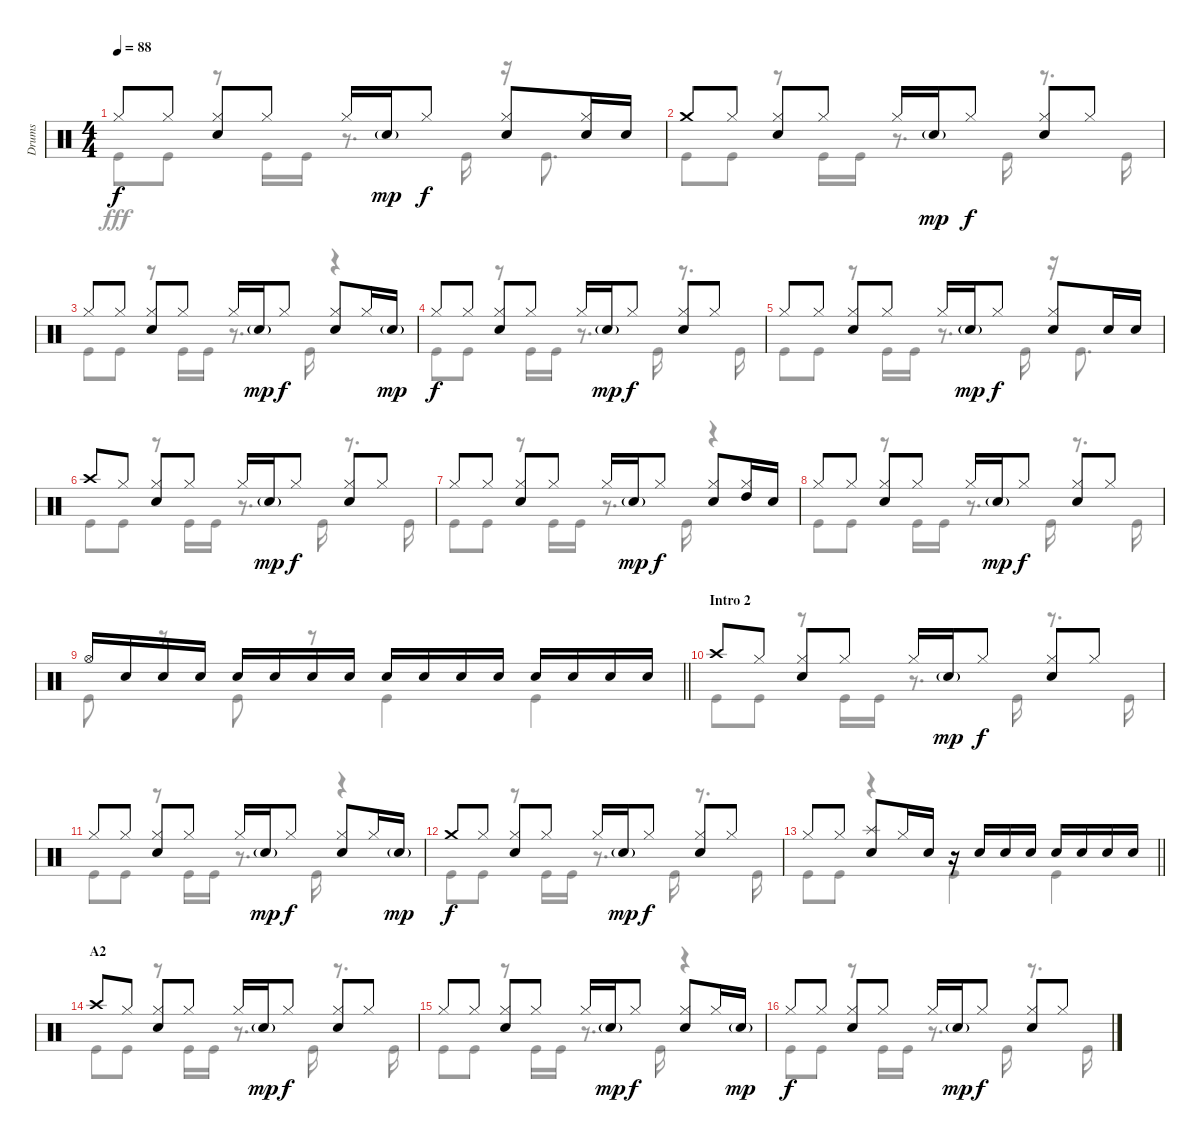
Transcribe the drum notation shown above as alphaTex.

\track ("Drums" "Drums") {instrument percussion}
\staff {score}
\articulation defaults
\voice
\ts (4 4)
\tempo 88
\clef neutral
\ks c "Hi-Hat (closed)".8{dy f} "Hi-Hat (closed)".8
("Hi-Hat (closed)" "Snare (hit) 2").8 "Hi-Hat (closed)".8 "Hi-Hat (closed)".16 "Snare (hit) 2"{g}.16{dy mp} "Hi-Hat (closed)".8{dy f} ("Hi-Hat (closed)" "Snare (hit) 2").8 ("Hi-Hat (closed)" "Snare (hit) 2").16 "Snare (hit) 2".16 |
"Crash medium (hit)".8 "Hi-Hat (closed)".8 ("Hi-Hat (closed)" "Snare (hit) 2").8 "Hi-Hat (closed)".8 "Hi-Hat (closed)".16 "Snare (hit) 2"{g}.16{dy mp} "Hi-Hat (closed)".8{dy f} ("Hi-Hat (closed)" "Snare (hit) 2").8 "Hi-Hat (closed)".8 |
"Hi-Hat (closed)".8 "Hi-Hat (closed)".8 ("Hi-Hat (closed)" "Snare (hit) 2").8 "Hi-Hat (closed)".8 "Hi-Hat (closed)".16 "Snare (hit) 2"{g}.16{dy mp} "Hi-Hat (closed)".8{dy f} ("Hi-Hat (closed)" "Snare (hit) 2").8 "Hi-Hat (closed)".16 "Snare (hit) 2"{g}.16{dy mp} |
"Hi-Hat (closed)".8{dy f} "Hi-Hat (closed)".8 ("Hi-Hat (closed)" "Snare (hit) 2").8 "Hi-Hat (closed)".8 "Hi-Hat (closed)".16 "Snare (hit) 2"{g}.16{dy mp} "Hi-Hat (closed)".8{dy f} ("Hi-Hat (closed)" "Snare (hit) 2").8 "Hi-Hat (closed)".8 |
"Hi-Hat (closed)".8 "Hi-Hat (closed)".8 ("Hi-Hat (closed)" "Snare (hit) 2").8 "Hi-Hat (closed)".8 "Hi-Hat (closed)".16 "Snare (hit) 2"{g}.16{dy mp} "Hi-Hat (closed)".8{dy f} ("Hi-Hat (closed)" "Snare (hit) 2").8 "Snare (hit) 2".16 "Snare (hit) 2".16 |
"Crash high (hit)".8 "Hi-Hat (closed)".8 ("Hi-Hat (closed)" "Snare (hit) 2").8 "Hi-Hat (closed)".8 "Hi-Hat (closed)".16 "Snare (hit) 2"{g}.16{dy mp} "Hi-Hat (closed)".8{dy f} ("Hi-Hat (closed)" "Snare (hit) 2").8 "Hi-Hat (closed)".8 |
"Hi-Hat (closed)".8 "Hi-Hat (closed)".8 ("Hi-Hat (closed)" "Snare (hit) 2").8 "Hi-Hat (closed)".8 "Hi-Hat (closed)".16 "Snare (hit) 2"{g}.16{dy mp} "Hi-Hat (closed)".8{dy f} ("Hi-Hat (closed)" "Snare (hit) 2").8 ("Hi-Hat (closed)" "High Tom (hit)").16 "Snare (hit) 2".16 |
"Hi-Hat (closed)".8 "Hi-Hat (closed)".8 ("Hi-Hat (closed)" "Snare (hit) 2").8 "Hi-Hat (closed)".8 "Hi-Hat (closed)".16 "Snare (hit) 2"{g}.16{dy mp} "Hi-Hat (closed)".8{dy f} ("Hi-Hat (closed)" "Snare (hit) 2").8 "Hi-Hat (closed)".8 |
\barLineRight lightlight "Hi-Hat (open)".16 "Snare (hit) 2".16 "Snare (hit) 2".16 "Snare (hit) 2".16 "Snare (hit) 2".16 "Snare (hit) 2".16 "Snare (hit) 2".16 "Snare (hit) 2".16 "Snare (hit) 2".16 "Snare (hit) 2".16 "Snare (hit) 2".16 "Snare (hit) 2".16 "Snare (hit) 2".16 "Snare (hit) 2".16 "Snare (hit) 2".16 "Snare (hit) 2".16
|
\section ("" "Intro 2")
"Crash high (hit)".8 "Hi-Hat (closed)".8 ("Hi-Hat (closed)" "Snare (hit) 2").8 "Hi-Hat (closed)".8 "Hi-Hat (closed)".16 "Snare (hit) 2"{g}.16{dy mp} "Hi-Hat (closed)".8{dy f} ("Hi-Hat (closed)" "Snare (hit) 2").8 "Hi-Hat (closed)".8 |
"Hi-Hat (closed)".8 "Hi-Hat (closed)".8 ("Hi-Hat (closed)" "Snare (hit) 2").8 "Hi-Hat (closed)".8 "Hi-Hat (closed)".16 "Snare (hit) 2"{g}.16{dy mp} "Hi-Hat (closed)".8{dy f} ("Hi-Hat (closed)" "Snare (hit) 2").8 "Hi-Hat (closed)".16 "Snare (hit) 2"{g}.16{dy mp} |
"Crash medium (hit)".8{dy f} "Hi-Hat (closed)".8 ("Hi-Hat (closed)" "Snare (hit) 2").8 "Hi-Hat (closed)".8 "Hi-Hat (closed)".16 "Snare (hit) 2"{g}.16{dy mp} "Hi-Hat (closed)".8{dy f} ("Hi-Hat (closed)" "Snare (hit) 2").8 "Hi-Hat (closed)".8 |
\barLineRight lightlight "Hi-Hat (closed)".8 "Hi-Hat (closed)".8
("Splash (hit)" "Snare (hit) 2").8 "Hi-Hat (closed)".16 "Snare (hit) 2".16 r.16 "Snare (hit) 2".16 "Snare (hit) 2".16 "Snare (hit) 2".16 "Snare (hit) 2".16 "Snare (hit) 2".16 "Snare (hit) 2".16 "Snare (hit) 2".16 |
\section ("" "A2")
"Crash high (hit)".8 "Hi-Hat (closed)".8 ("Hi-Hat (closed)" "Snare (hit) 2").8 "Hi-Hat (closed)".8 "Hi-Hat (closed)".16 "Snare (hit) 2"{g}.16{dy mp} "Hi-Hat (closed)".8{dy f} ("Hi-Hat (closed)" "Snare (hit) 2").8 "Hi-Hat (closed)".8 |
"Hi-Hat (closed)".8 "Hi-Hat (closed)".8 ("Hi-Hat (closed)" "Snare (hit) 2").8 "Hi-Hat (closed)".8 "Hi-Hat (closed)".16 "Snare (hit) 2"{g}.16{dy mp} "Hi-Hat (closed)".8{dy f} ("Hi-Hat (closed)" "Snare (hit) 2").8 "Hi-Hat (closed)".16 "Snare (hit) 2"{g}.16{dy mp} |
"Hi-Hat (closed)".8{dy f} "Hi-Hat (closed)".8 ("Hi-Hat (closed)" "Snare (hit) 2").8 "Hi-Hat (closed)".8 "Hi-Hat (closed)".16 "Snare (hit) 2"{g}.16{dy mp} "Hi-Hat (closed)".8{dy f} ("Hi-Hat (closed)" "Snare (hit) 2").8 "Hi-Hat (closed)".8
\voice
\clef neutral
\ottava regular
\simile none
\ks c "Kick (hit)".8{dy fff} "Kick (hit)".8
r.8 "Kick (hit)".16 "Kick (hit)".16 r.8{d} "Kick (hit)".16 r.16 "Kick (hit)".8{d} |
"Kick (hit)".8 "Kick (hit)".8 r.8 "Kick (hit)".16 "Kick (hit)".16 r.8{d} "Kick (hit)".16 r.8{d} "Kick (hit)".16 |
"Kick (hit)".8 "Kick (hit)".8 r.8 "Kick (hit)".16 "Kick (hit)".16 r.8{d} "Kick (hit)".16 r.4 |
"Kick (hit)".8 "Kick (hit)".8 r.8 "Kick (hit)".16 "Kick (hit)".16 r.8{d} "Kick (hit)".16 r.8{d} "Kick (hit)".16 |
"Kick (hit)".8 "Kick (hit)".8 r.8 "Kick (hit)".16 "Kick (hit)".16 r.8{d} "Kick (hit)".16 r.16 "Kick (hit)".8{d} |
"Kick (hit)".8 "Kick (hit)".8 r.8 "Kick (hit)".16 "Kick (hit)".16 r.8{d} "Kick (hit)".16 r.8{d} "Kick (hit)".16 |
"Kick (hit)".8 "Kick (hit)".8 r.8 "Kick (hit)".16 "Kick (hit)".16 r.8{d} "Kick (hit)".16 r.4 |
"Kick (hit)".8 "Kick (hit)".8 r.8 "Kick (hit)".16 "Kick (hit)".16 r.8{d} "Kick (hit)".16 r.8{d} "Kick (hit)".16 |
\barLineRight lightlight "Kick (hit)".8
r.8 "Kick (hit)".8 r.8 "Kick (hit)".4 "Kick (hit)".4 |
"Kick (hit)".8 "Kick (hit)".8 r.8 "Kick (hit)".16 "Kick (hit)".16 r.8{d} "Kick (hit)".16 r.8{d} "Kick (hit)".16 |
"Kick (hit)".8 "Kick (hit)".8 r.8 "Kick (hit)".16 "Kick (hit)".16 r.8{d} "Kick (hit)".16 r.4 |
"Kick (hit)".8 "Kick (hit)".8 r.8 "Kick (hit)".16 "Kick (hit)".16 r.8{d} "Kick (hit)".16 r.8{d} "Kick (hit)".16 |
\barLineRight lightlight "Kick (hit)".8 "Kick (hit)".8
r.4 "Kick (hit)".4 "Kick (hit)".4 |
"Kick (hit)".8 "Kick (hit)".8 r.8 "Kick (hit)".16 "Kick (hit)".16 r.8{d} "Kick (hit)".16 r.8{d} "Kick (hit)".16 |
"Kick (hit)".8 "Kick (hit)".8 r.8 "Kick (hit)".16 "Kick (hit)".16 r.8{d} "Kick (hit)".16 r.4 |
"Kick (hit)".8 "Kick (hit)".8 r.8 "Kick (hit)".16 "Kick (hit)".16 r.8{d} "Kick (hit)".16 r.8{d} "Kick (hit)".16
